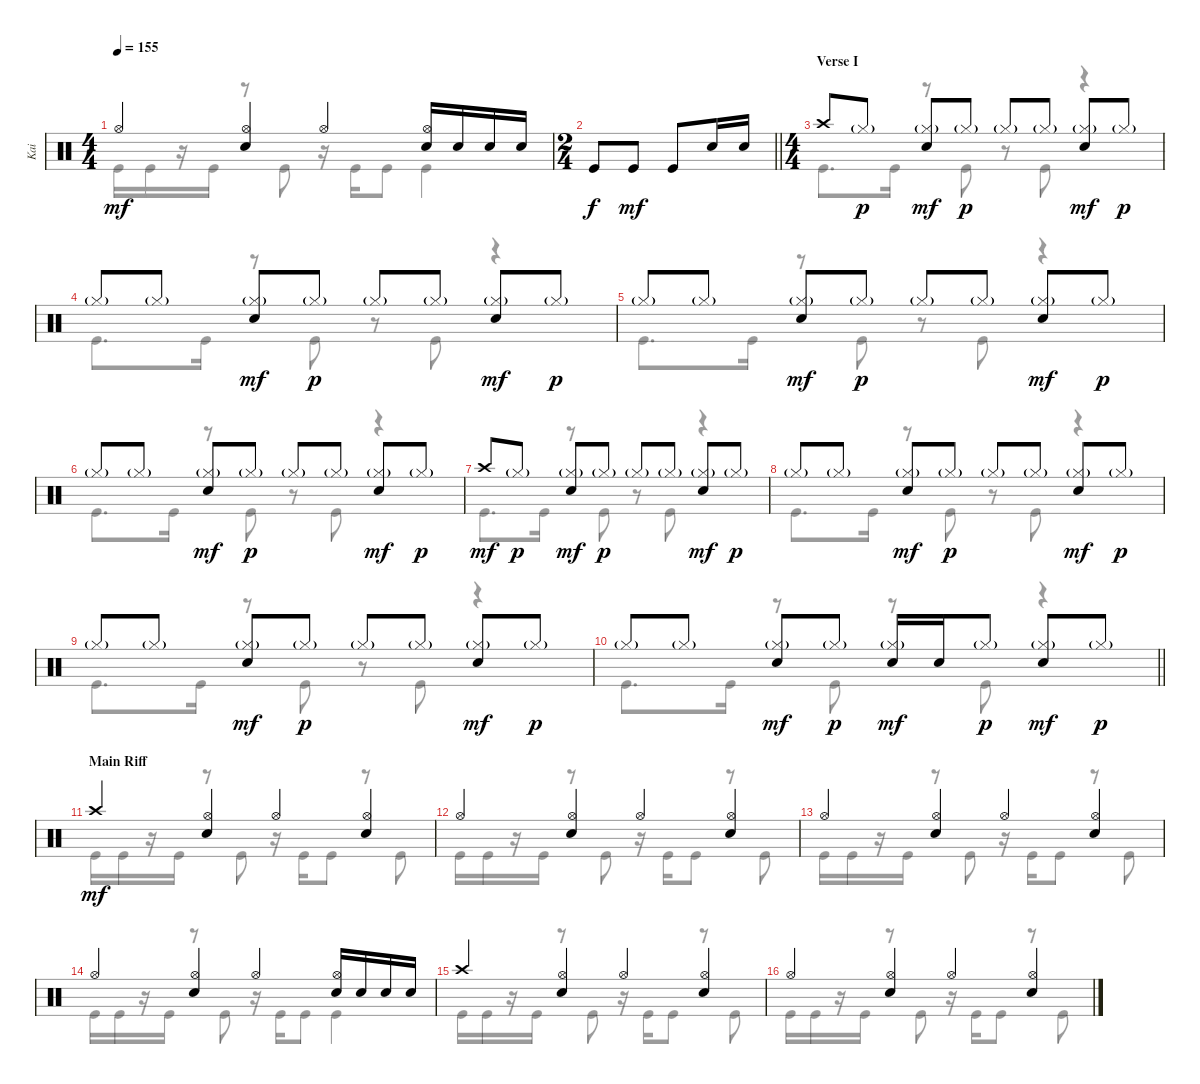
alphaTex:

\track ("Kai" "Kai") {instrument percussion}
\staff {score}
\articulation defaults
\voice
\ts (4 4)
\tempo 155
\clef neutral
\ks c "Hi-Hat (open)".4{dy mf}
("Hi-Hat (open)" "Electric Snare (hit)").4 "Hi-Hat (open)".4 ("Hi-Hat (open)" "Electric Snare (hit)").16 "Electric Snare (hit)".16 "Electric Snare (hit)".16 "Electric Snare (hit)".16 |
\ts (2 4)
\barLineRight lightlight "Kick (hit)".8{dy f} "Kick (hit)".8{dy mf} "Kick (hit)".8 "Electric Snare (hit)".16 "Electric Snare (hit)".16
|
\ts (4 4)
\section ("" "Verse I")
"Crash high (hit)".8 "Hi-Hat (closed)"{g}.8{dy p} ("Hi-Hat (closed)"{g} "Electric Snare (hit)").8{dy mf} "Hi-Hat (closed)"{g}.8{dy p} "Hi-Hat (closed)"{g}.8 "Hi-Hat (closed)"{g}.8 ("Hi-Hat (closed)"{g} "Electric Snare (hit)").8{dy mf} "Hi-Hat (closed)"{g}.8{dy p} |
"Hi-Hat (closed)"{g}.8 "Hi-Hat (closed)"{g}.8 ("Hi-Hat (closed)"{g} "Electric Snare (hit)").8{dy mf} "Hi-Hat (closed)"{g}.8{dy p} "Hi-Hat (closed)"{g}.8 "Hi-Hat (closed)"{g}.8 ("Hi-Hat (closed)"{g} "Electric Snare (hit)").8{dy mf} "Hi-Hat (closed)"{g}.8{dy p} |
"Hi-Hat (closed)"{g}.8 "Hi-Hat (closed)"{g}.8 ("Hi-Hat (closed)"{g} "Electric Snare (hit)").8{dy mf} "Hi-Hat (closed)"{g}.8{dy p} "Hi-Hat (closed)"{g}.8 "Hi-Hat (closed)"{g}.8 ("Hi-Hat (closed)"{g} "Electric Snare (hit)").8{dy mf} "Hi-Hat (closed)"{g}.8{dy p} |
"Hi-Hat (closed)"{g}.8 "Hi-Hat (closed)"{g}.8 ("Hi-Hat (closed)"{g} "Electric Snare (hit)").8{dy mf} "Hi-Hat (closed)"{g}.8{dy p} "Hi-Hat (closed)"{g}.8 "Hi-Hat (closed)"{g}.8 ("Hi-Hat (closed)"{g} "Electric Snare (hit)").8{dy mf} "Hi-Hat (closed)"{g}.8{dy p} |
"Crash high (hit)".8{dy mf} "Hi-Hat (closed)"{g}.8{dy p} ("Hi-Hat (closed)"{g} "Electric Snare (hit)").8{dy mf} "Hi-Hat (closed)"{g}.8{dy p} "Hi-Hat (closed)"{g}.8 "Hi-Hat (closed)"{g}.8 ("Hi-Hat (closed)"{g} "Electric Snare (hit)").8{dy mf} "Hi-Hat (closed)"{g}.8{dy p} |
"Hi-Hat (closed)"{g}.8 "Hi-Hat (closed)"{g}.8 ("Hi-Hat (closed)"{g} "Electric Snare (hit)").8{dy mf} "Hi-Hat (closed)"{g}.8{dy p} "Hi-Hat (closed)"{g}.8 "Hi-Hat (closed)"{g}.8 ("Hi-Hat (closed)"{g} "Electric Snare (hit)").8{dy mf} "Hi-Hat (closed)"{g}.8{dy p} |
"Hi-Hat (closed)"{g}.8 "Hi-Hat (closed)"{g}.8 ("Hi-Hat (closed)"{g} "Electric Snare (hit)").8{dy mf} "Hi-Hat (closed)"{g}.8{dy p} "Hi-Hat (closed)"{g}.8 "Hi-Hat (closed)"{g}.8 ("Hi-Hat (closed)"{g} "Electric Snare (hit)").8{dy mf} "Hi-Hat (closed)"{g}.8{dy p} |
\barLineRight lightlight "Hi-Hat (closed)"{g}.8 "Hi-Hat (closed)"{g}.8
("Hi-Hat (closed)"{g} "Electric Snare (hit)").8{dy mf} "Hi-Hat (closed)"{g}.8{dy p} ("Hi-Hat (closed)"{g} "Electric Snare (hit)").16{dy mf} "Electric Snare (hit)".16 "Hi-Hat (closed)"{g}.8{dy p} ("Hi-Hat (closed)"{g} "Electric Snare (hit)").8{dy mf} "Hi-Hat (closed)"{g}.8{dy p} |
\section ("" "Main Riff")
"Crash high (hit)".4{dy mf} ("Hi-Hat (open)" "Electric Snare (hit)").4 "Hi-Hat (open)".4 ("Hi-Hat (open)" "Electric Snare (hit)").4 |
"Hi-Hat (open)".4 ("Hi-Hat (open)" "Electric Snare (hit)").4 "Hi-Hat (open)".4 ("Hi-Hat (open)" "Electric Snare (hit)").4 |
"Hi-Hat (open)".4 ("Hi-Hat (open)" "Electric Snare (hit)").4 "Hi-Hat (open)".4 ("Hi-Hat (open)" "Electric Snare (hit)").4 |
"Hi-Hat (open)".4 ("Hi-Hat (open)" "Electric Snare (hit)").4 "Hi-Hat (open)".4 ("Hi-Hat (open)" "Electric Snare (hit)").16 "Electric Snare (hit)".16 "Electric Snare (hit)".16 "Electric Snare (hit)".16 |
"Crash high (hit)".4 ("Hi-Hat (open)" "Electric Snare (hit)").4 "Hi-Hat (open)".4 ("Hi-Hat (open)" "Electric Snare (hit)").4 |
"Hi-Hat (open)".4 ("Hi-Hat (open)" "Electric Snare (hit)").4 "Hi-Hat (open)".4 ("Hi-Hat (open)" "Electric Snare (hit)").4
\voice
\clef neutral
\ottava regular
\simile none
\ks c "Kick (hit)".16{dy mf} "Kick (hit)".16
r.16 "Kick (hit)".16 r.8 "Kick (hit)".8 r.16 "Kick (hit)".16 "Kick (hit)".8 "Kick (hit)".4 |
\barLineRight lightlight
|
"Kick (hit)".8{d} "Kick (hit)".16 r.8 "Kick (hit)".8 r.8 "Kick (hit)".8 r.4 |
"Kick (hit)".8{d} "Kick (hit)".16 r.8 "Kick (hit)".8 r.8 "Kick (hit)".8 r.4 |
"Kick (hit)".8{d} "Kick (hit)".16 r.8 "Kick (hit)".8 r.8 "Kick (hit)".8 r.4 |
"Kick (hit)".8{d} "Kick (hit)".16 r.8 "Kick (hit)".8 r.8 "Kick (hit)".8 r.4 |
"Kick (hit)".8{d} "Kick (hit)".16 r.8 "Kick (hit)".8 r.8 "Kick (hit)".8 r.4 |
"Kick (hit)".8{d} "Kick (hit)".16 r.8 "Kick (hit)".8 r.8 "Kick (hit)".8 r.4 |
"Kick (hit)".8{d} "Kick (hit)".16 r.8 "Kick (hit)".8 r.8 "Kick (hit)".8 r.4 |
\barLineRight lightlight "Kick (hit)".8{d} "Kick (hit)".16
r.8 "Kick (hit)".8 r.8 "Kick (hit)".8 r.4 |
"Kick (hit)".16 "Kick (hit)".16 r.16 "Kick (hit)".16 r.8 "Kick (hit)".8 r.16 "Kick (hit)".16 "Kick (hit)".8 r.8 "Kick (hit)".8 |
"Kick (hit)".16 "Kick (hit)".16 r.16 "Kick (hit)".16 r.8 "Kick (hit)".8 r.16 "Kick (hit)".16 "Kick (hit)".8 r.8 "Kick (hit)".8 |
"Kick (hit)".16 "Kick (hit)".16 r.16 "Kick (hit)".16 r.8 "Kick (hit)".8 r.16 "Kick (hit)".16 "Kick (hit)".8 r.8 "Kick (hit)".8 |
"Kick (hit)".16 "Kick (hit)".16 r.16 "Kick (hit)".16 r.8 "Kick (hit)".8 r.16 "Kick (hit)".16 "Kick (hit)".8 "Kick (hit)".4 |
"Kick (hit)".16 "Kick (hit)".16 r.16 "Kick (hit)".16 r.8 "Kick (hit)".8 r.16 "Kick (hit)".16 "Kick (hit)".8 r.8 "Kick (hit)".8 |
"Kick (hit)".16 "Kick (hit)".16 r.16 "Kick (hit)".16 r.8 "Kick (hit)".8 r.16 "Kick (hit)".16 "Kick (hit)".8 r.8 "Kick (hit)".8
